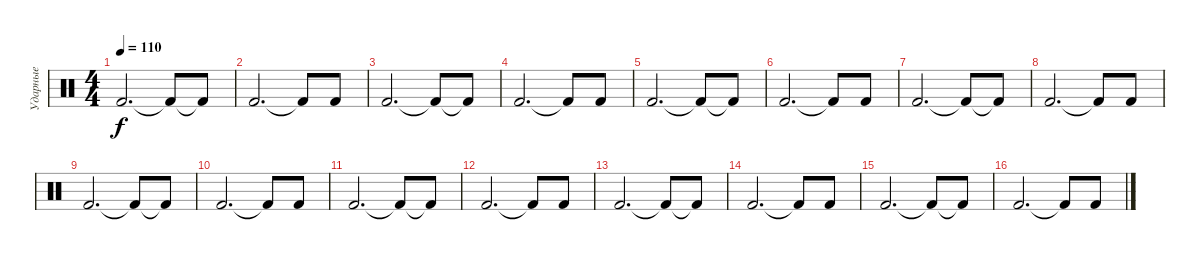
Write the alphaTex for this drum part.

\track ("Ударные" "Ударные") {instrument percussion}
\staff {score}
\articulation defaults
\ts (4 4)
\tempo 110
\clef neutral
\ks c "Kick (hit) 2".2{d dy f} "Kick (hit) 2"{t}.8 "Kick (hit) 2"{t}.8
|
"Kick (hit) 2".2{d} "Kick (hit) 2"{t}.8 "Kick (hit) 2".8 |
"Kick (hit) 2".2{d} "Kick (hit) 2"{t}.8 "Kick (hit) 2"{t}.8 |
"Kick (hit) 2".2{d} "Kick (hit) 2"{t}.8 "Kick (hit) 2".8 |
"Kick (hit) 2".2{d} "Kick (hit) 2"{t}.8 "Kick (hit) 2"{t}.8 |
"Kick (hit) 2".2{d} "Kick (hit) 2"{t}.8 "Kick (hit) 2".8 |
"Kick (hit) 2".2{d} "Kick (hit) 2"{t}.8 "Kick (hit) 2"{t}.8 |
"Kick (hit) 2".2{d} "Kick (hit) 2"{t}.8 "Kick (hit) 2".8 |
"Kick (hit) 2".2{d} "Kick (hit) 2"{t}.8 "Kick (hit) 2"{t}.8 |
"Kick (hit) 2".2{d} "Kick (hit) 2"{t}.8 "Kick (hit) 2".8 |
"Kick (hit) 2".2{d} "Kick (hit) 2"{t}.8 "Kick (hit) 2"{t}.8 |
"Kick (hit) 2".2{d} "Kick (hit) 2"{t}.8 "Kick (hit) 2".8 |
"Kick (hit) 2".2{d} "Kick (hit) 2"{t}.8 "Kick (hit) 2"{t}.8 |
"Kick (hit) 2".2{d} "Kick (hit) 2"{t}.8 "Kick (hit) 2".8 |
"Kick (hit) 2".2{d} "Kick (hit) 2"{t}.8 "Kick (hit) 2"{t}.8 |
"Kick (hit) 2".2{d} "Kick (hit) 2"{t}.8 "Kick (hit) 2".8
